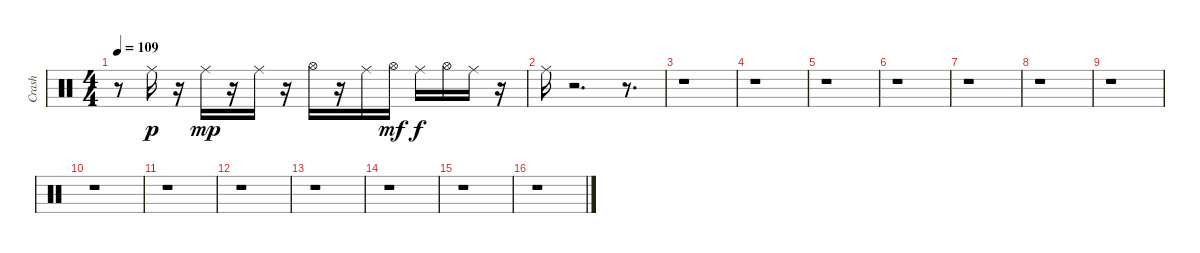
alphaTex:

\track ("Crash" "Crash") {instrument percussion}
\staff {score}
\articulation defaults
\ts (4 4)
\tempo 109
\clef neutral
\ks c
r.8{dy f} "Ride (middle)".16{dy p} r.16 "Ride (middle)".16{dy mp} r.16 "Ride (middle)".16 r.16 "Hi-Hat (open)".16 r.16 "Ride (middle)".16 "Hi-Hat (open)".16{dy mf} "Ride (middle)".16{dy f} "Hi-Hat (open)".16 "Ride (middle)".16 r.16 |
"Ride (middle)".16 r.2{d} r.8{d} |
r.1 |
r.1 |
r.1 |
r.1 |
r.1 |
r.1 |
r.1 |
r.1 |
r.1 |
r.1 |
r.1 |
r.1 |
r.1 |
r.1
